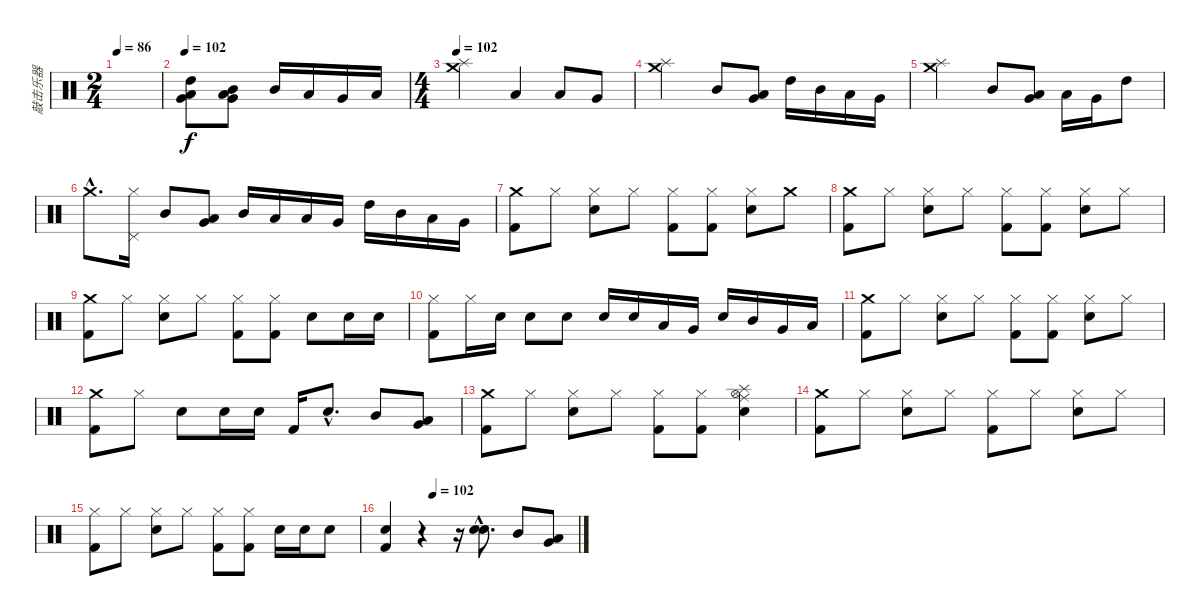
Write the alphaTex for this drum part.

\track ("敲击乐器" "敲击乐器") {instrument percussion}
\staff {score}
\articulation defaults
\ts (2 4)
\tempo 86
\clef neutral
\ks c
|
\tempo 102
("High Tom (hit)" "Low Tom (hit)" "Very Low Tom (hit)").8 ("Very Low Tom (hit)" "Mid Tom (hit)" "Low Tom (hit)").8 "Mid Tom (hit)".16 "Low Tom (hit)".16 "Very Low Tom (hit)".16 "Low Tom (hit)".16 |
\ts (4 4)
\tempo 102
("Crash medium (hit)" "Splash (hit)").2 "Low Tom (hit)".4 "Low Tom (hit)".8 "Very Low Tom (hit)".8 |
("Crash medium (hit)" "Splash (hit)").2 "Mid Tom (hit)".8 ("Very Low Tom (hit)" "Low Tom (hit)").8 "High Tom (hit)".16 "Mid Tom (hit)".16 "Low Tom (hit)".16 "Very Low Tom (hit)".16 |
("Crash medium (hit)" "Splash (hit)").2 "Mid Tom (hit)".8 ("Very Low Tom (hit)" "Low Tom (hit)").8 "Low Tom (hit)".16 "Very Low Tom (hit)".16 "High Tom (hit)".8 |
"Crash medium (hit)"{hac}.8{d} ("Pedal Hi-Hat (hit)" "Hi-Hat (closed)").16 "Mid Tom (hit)".8 ("Very Low Tom (hit)" "Low Tom (hit)").8 "Mid Tom (hit)".16 "Low Tom (hit)".16 "Low Tom (hit)".16 "Very Low Tom (hit)".16 "High Tom (hit)".16 "Mid Tom (hit)".16 "Low Tom (hit)".16 "Very Low Tom (hit)".16 |
("Crash medium (hit)" "Kick (hit) 2").8 "Hi-Hat (closed)".8 ("Hi-Hat (closed)" "Electric Snare (hit)").8 "Hi-Hat (closed)".8 ("Hi-Hat (closed)" "Kick (hit) 2").8 ("Hi-Hat (closed)" "Kick (hit) 2").8 ("Hi-Hat (closed)" "Electric Snare (hit)").8 "Crash medium (hit)".8 |
("Crash medium (hit)" "Kick (hit) 2").8 "Hi-Hat (closed)".8 ("Hi-Hat (closed)" "Electric Snare (hit)").8 "Hi-Hat (closed)".8 ("Hi-Hat (closed)" "Kick (hit) 2").8 ("Hi-Hat (closed)" "Kick (hit) 2").8 ("Hi-Hat (closed)" "Electric Snare (hit)").8 "Hi-Hat (closed)".8 |
("Crash medium (hit)" "Kick (hit) 2").8 "Hi-Hat (closed)".8 ("Hi-Hat (closed)" "Electric Snare (hit)").8 "Hi-Hat (closed)".8 ("Hi-Hat (closed)" "Kick (hit) 2").8 ("Hi-Hat (closed)" "Kick (hit) 2").8 "Electric Snare (hit)".8 "Electric Snare (hit)".16 "Electric Snare (hit)".16 |
("Hi-Hat (closed)" "Kick (hit) 2").8 "Hi-Hat (closed)".16 "Electric Snare (hit)".16 "Electric Snare (hit)".8 "Electric Snare (hit)".8 "Electric Snare (hit)".16 "Electric Snare (hit)".16 "Low Tom (hit)".16 "Very Low Tom (hit)".16 "Electric Snare (hit)".16 "Mid Tom (hit)".16 "Very Low Tom (hit)".16 "Low Tom (hit)".16 |
("Crash medium (hit)" "Kick (hit) 2").8 "Hi-Hat (closed)".8 ("Hi-Hat (closed)" "Electric Snare (hit)").8 "Hi-Hat (closed)".8 ("Hi-Hat (closed)" "Kick (hit) 2").8 ("Hi-Hat (closed)" "Kick (hit) 2").8 ("Hi-Hat (closed)" "Electric Snare (hit)").8 "Hi-Hat (closed)".8 |
("Crash medium (hit)" "Kick (hit) 2").8 "Hi-Hat (closed)".8 "Electric Snare (hit)".8 "Electric Snare (hit)".16 "Electric Snare (hit)".16 "Kick (hit) 2".16 "Electric Snare (hit)"{hac}.8{d} "Mid Tom (hit)".8 ("Very Low Tom (hit)" "Low Tom (hit)").8 |
("Crash medium (hit)" "Kick (hit) 2").8 "Hi-Hat (closed)".8 ("Hi-Hat (closed)" "Electric Snare (hit)").8 "Hi-Hat (closed)".8 ("Hi-Hat (closed)" "Kick (hit) 2").8 ("Hi-Hat (closed)" "Kick (hit) 2").8 ("Hi-Hat (open)" "Electric Snare (hit)" "Splash (hit)" "Ride (middle)").4 |
("Crash medium (hit)" "Kick (hit) 2").8 "Hi-Hat (closed)".8 ("Hi-Hat (closed)" "Electric Snare (hit)").8 "Hi-Hat (closed)".8 ("Hi-Hat (closed)" "Kick (hit) 2").8 "Hi-Hat (closed)".8 ("Hi-Hat (closed)" "Electric Snare (hit)").8 "Hi-Hat (closed)".8 |
("Hi-Hat (closed)" "Kick (hit) 2").8 "Hi-Hat (closed)".8 ("Hi-Hat (closed)" "Electric Snare (hit)").8 "Hi-Hat (closed)".8 ("Hi-Hat (closed)" "Kick (hit) 2").8 ("Hi-Hat (closed)" "Kick (hit) 2").8 "Electric Snare (hit)".16 "Electric Snare (hit)".16 "Electric Snare (hit)".8 |
\tempo (102 0.25)
("Electric Snare (hit)" "Kick (hit) 2").4 r.4 r.16 ("Electric Snare (hit)"{hac} "Snare (hit) 2"{hac}).8{d} "Mid Tom (hit)".8 ("Very Low Tom (hit)" "Low Tom (hit)").8
